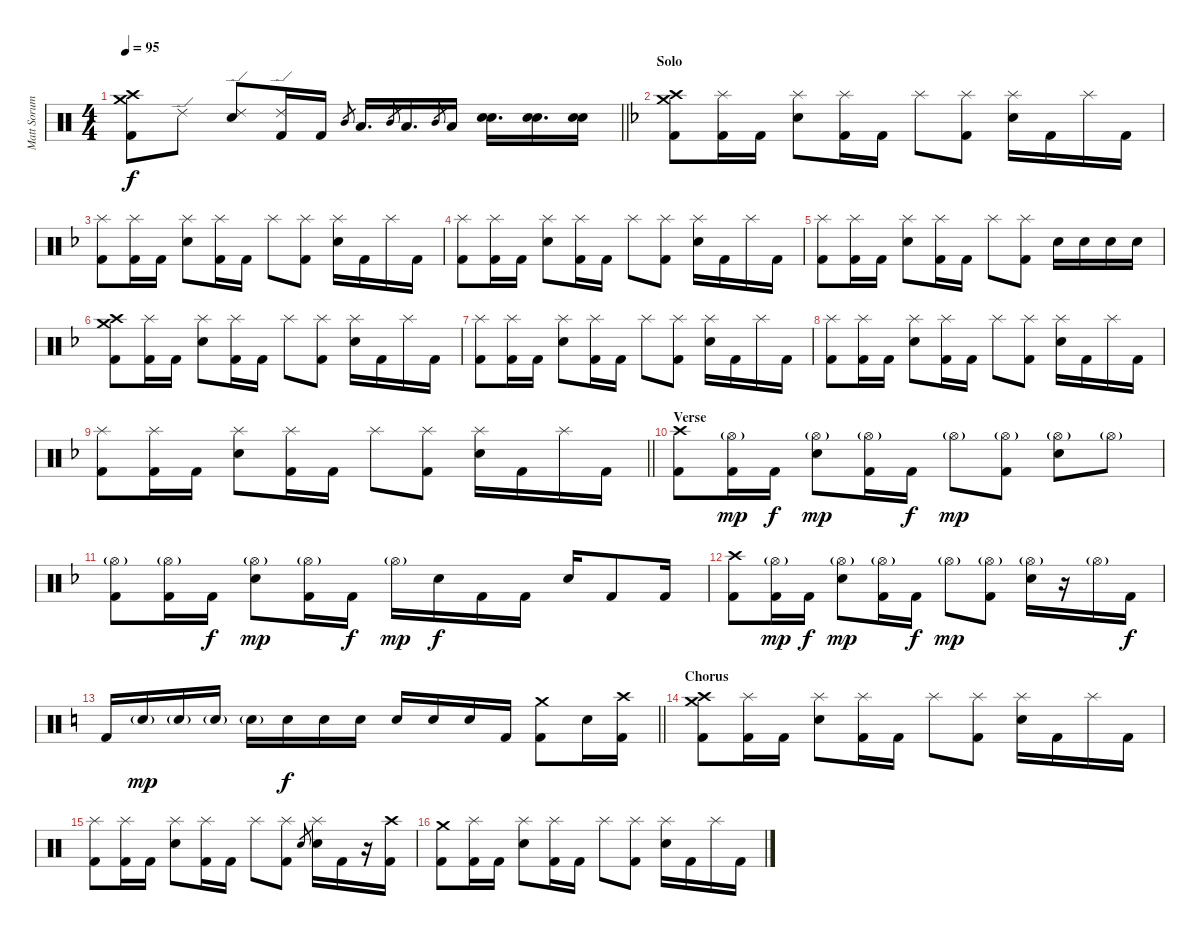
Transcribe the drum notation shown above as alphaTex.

\track ("Matt Sorum" "Matt Sorum") {instrument percussion}
\staff {score}
\articulation defaults
\ts (4 4)
\tempo 95
\clef neutral
\barLineRight lightlight
\ks c
("Crash medium (hit)" "Crash high (hit)" "Kick (hit) 2").8{dy f} "Ride (edge) 2".8 ("Ride (edge) 2" "Electric Snare (hit)").8 ("Ride (edge) 2" "Kick (hit) 2").16 "Kick (hit) 2".16 "Mid Tom (hit)".8{gr} "Low Tom (hit)".16{d} "Mid Tom (hit)".8{gr} "Low Tom (hit)".16{d} "Mid Tom (hit)".8{gr} "Low Tom (hit)".16 ("Snare (hit) 2" "Electric Snare (hit)").16{d} ("Snare (hit) 2" "Electric Snare (hit)").16{d} ("Snare (hit) 2" "Electric Snare (hit)").16 |
\section ("" "Solo")
\ks dminor
("Crash medium (hit)" "Crash high (hit)" "Kick (hit) 2").8 ("Splash (hit)" "Kick (hit) 2").16 "Kick (hit) 2".16 ("Splash (hit)" "Electric Snare (hit)").8 ("Splash (hit)" "Kick (hit) 2").16 "Kick (hit) 2".16 "Splash (hit)".8 ("Splash (hit)" "Kick (hit) 2").8 ("Splash (hit)" "Electric Snare (hit)").16 "Kick (hit) 2".16 "Splash (hit)".16 "Kick (hit) 2".16 |
("Splash (hit)" "Kick (hit) 2").8 ("Splash (hit)" "Kick (hit) 2").16 "Kick (hit) 2".16 ("Splash (hit)" "Electric Snare (hit)").8 ("Splash (hit)" "Kick (hit) 2").16 "Kick (hit) 2".16 "Splash (hit)".8 ("Splash (hit)" "Kick (hit) 2").8 ("Splash (hit)" "Electric Snare (hit)").16 "Kick (hit) 2".16 "Splash (hit)".16 "Kick (hit) 2".16 |
("Splash (hit)" "Kick (hit) 2").8 ("Splash (hit)" "Kick (hit) 2").16 "Kick (hit) 2".16 ("Splash (hit)" "Electric Snare (hit)").8 ("Splash (hit)" "Kick (hit) 2").16 "Kick (hit) 2".16 "Splash (hit)".8 ("Splash (hit)" "Kick (hit) 2").8 ("Splash (hit)" "Electric Snare (hit)").16 "Kick (hit) 2".16 "Splash (hit)".16 "Kick (hit) 2".16 |
("Splash (hit)" "Kick (hit) 2").8 ("Splash (hit)" "Kick (hit) 2").16 "Kick (hit) 2".16 ("Splash (hit)" "Electric Snare (hit)").8 ("Splash (hit)" "Kick (hit) 2").16 "Kick (hit) 2".16 "Splash (hit)".8 ("Splash (hit)" "Kick (hit) 2").8 "Electric Snare (hit)".16 "Electric Snare (hit)".16 "Electric Snare (hit)".16 "Electric Snare (hit)".16 |
("Crash medium (hit)" "Crash high (hit)" "Kick (hit) 2").8 ("Splash (hit)" "Kick (hit) 2").16 "Kick (hit) 2".16 ("Splash (hit)" "Electric Snare (hit)").8 ("Splash (hit)" "Kick (hit) 2").16 "Kick (hit) 2".16 "Splash (hit)".8 ("Splash (hit)" "Kick (hit) 2").8 ("Splash (hit)" "Electric Snare (hit)").16 "Kick (hit) 2".16 "Splash (hit)".16 "Kick (hit) 2".16 |
("Splash (hit)" "Kick (hit) 2").8 ("Splash (hit)" "Kick (hit) 2").16 "Kick (hit) 2".16 ("Splash (hit)" "Electric Snare (hit)").8 ("Splash (hit)" "Kick (hit) 2").16 "Kick (hit) 2".16 "Splash (hit)".8 ("Splash (hit)" "Kick (hit) 2").8 ("Splash (hit)" "Electric Snare (hit)").16 "Kick (hit) 2".16 "Splash (hit)".16 "Kick (hit) 2".16 |
("Splash (hit)" "Kick (hit) 2").8 ("Splash (hit)" "Kick (hit) 2").16 "Kick (hit) 2".16 ("Splash (hit)" "Electric Snare (hit)").8 ("Splash (hit)" "Kick (hit) 2").16 "Kick (hit) 2".16 "Splash (hit)".8 ("Splash (hit)" "Kick (hit) 2").8 ("Splash (hit)" "Electric Snare (hit)").16 "Kick (hit) 2".16 "Splash (hit)".16 "Kick (hit) 2".16 |
\barLineRight lightlight
("Splash (hit)" "Kick (hit) 2").8 ("Splash (hit)" "Kick (hit) 2").16 "Kick (hit) 2".16 ("Splash (hit)" "Electric Snare (hit)").8 ("Splash (hit)" "Kick (hit) 2").16 "Kick (hit) 2".16 "Splash (hit)".8 ("Splash (hit)" "Kick (hit) 2").8 ("Splash (hit)" "Electric Snare (hit)").16 "Kick (hit) 2".16 "Splash (hit)".16 "Kick (hit) 2".16 |
\section ("" "Verse")
("Crash high (hit)" "Kick (hit) 2").8 ("Hi-Hat (open)"{g} "Kick (hit) 2").16{dy mp} "Kick (hit) 2".16{dy f} ("Hi-Hat (open)"{g} "Electric Snare (hit)").8{dy mp} ("Hi-Hat (open)"{g} "Kick (hit) 2").16 "Kick (hit) 2".16{dy f} "Hi-Hat (open)"{g}.8{dy mp} ("Hi-Hat (open)"{g} "Kick (hit) 2").8 ("Hi-Hat (open)"{g} "Electric Snare (hit)").8 "Hi-Hat (open)"{g}.8 |
("Hi-Hat (open)"{g} "Kick (hit) 2").8 ("Hi-Hat (open)"{g} "Kick (hit) 2").16 "Kick (hit) 2".16{dy f} ("Hi-Hat (open)"{g} "Electric Snare (hit)").8{dy mp} ("Hi-Hat (open)"{g} "Kick (hit) 2").16 "Kick (hit) 2".16{dy f} "Hi-Hat (open)"{g}.16{dy mp} "Electric Snare (hit)".16{dy f} "Kick (hit) 2".16 "Kick (hit) 2".16 "Electric Snare (hit)".16 "Kick (hit) 2".8 "Kick (hit) 2".16 |
("Crash high (hit)" "Kick (hit) 2").8 ("Hi-Hat (open)"{g} "Kick (hit) 2").16{dy mp} "Kick (hit) 2".16{dy f} ("Hi-Hat (open)"{g} "Electric Snare (hit)").8{dy mp} ("Hi-Hat (open)"{g} "Kick (hit) 2").16 "Kick (hit) 2".16{dy f} "Hi-Hat (open)"{g}.8{dy mp} ("Hi-Hat (open)"{g} "Kick (hit) 2").8 ("Hi-Hat (open)"{g} "Electric Snare (hit)").16 r.16 "Hi-Hat (open)"{g}.16 "Kick (hit) 2".16{dy f} |
\barLineRight lightlight
\ks c "Kick (hit) 2".16 "Electric Snare (hit)"{g}.16{dy mp} "Electric Snare (hit)"{g}.16 "Electric Snare (hit)"{g}.16 "Electric Snare (hit)"{g}.16 "Electric Snare (hit)".16{dy f} "Electric Snare (hit)".16 "Electric Snare (hit)".16 "Electric Snare (hit)".16 "Electric Snare (hit)".16 "Electric Snare (hit)".16 "Kick (hit) 2".16
("Crash medium (hit)" "Kick (hit) 2").8 "Electric Snare (hit)".16 ("Crash high (hit)" "Kick (hit) 2").16 |
\section ("" "Chorus")
("Crash medium (hit)" "Crash high (hit)" "Kick (hit) 2").8 ("Splash (hit)" "Kick (hit) 2").16 "Kick (hit) 2".16 ("Splash (hit)" "Electric Snare (hit)").8 ("Splash (hit)" "Kick (hit) 2").16 "Kick (hit) 2".16 "Splash (hit)".8 ("Splash (hit)" "Kick (hit) 2").8 ("Splash (hit)" "Electric Snare (hit)").16 "Kick (hit) 2".16 "Splash (hit)".16 "Kick (hit) 2".16 |
("Splash (hit)" "Kick (hit) 2").8 ("Splash (hit)" "Kick (hit) 2").16 "Kick (hit) 2".16 ("Splash (hit)" "Electric Snare (hit)").8 ("Splash (hit)" "Kick (hit) 2").16 "Kick (hit) 2".16 "Splash (hit)".8 ("Splash (hit)" "Kick (hit) 2").8 "Electric Snare (hit)".8{gr} ("Splash (hit)" "Electric Snare (hit)").16 "Kick (hit) 2".16 r.16 ("Crash high (hit)" "Kick (hit) 2").16 |
("Crash medium (hit)" "Kick (hit) 2").8 ("Splash (hit)" "Kick (hit) 2").16 "Kick (hit) 2".16 ("Splash (hit)" "Electric Snare (hit)").8 ("Splash (hit)" "Kick (hit) 2").16 "Kick (hit) 2".16 "Splash (hit)".8 ("Splash (hit)" "Kick (hit) 2").8 ("Splash (hit)" "Electric Snare (hit)").16 "Kick (hit) 2".16 "Splash (hit)".16 "Kick (hit) 2".16
